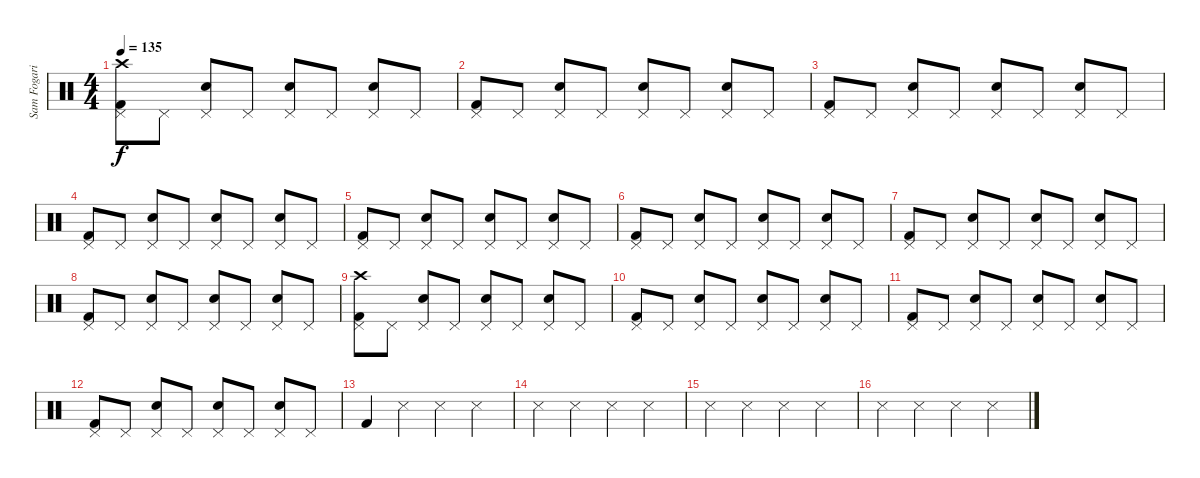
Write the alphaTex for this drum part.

\track ("Sam Fogarino" "Sam Fogari") {instrument percussion}
\staff {score}
\articulation defaults
\ts (4 4)
\tempo 135
\clef neutral
\ks c
("Crash high (hit)" "Kick (hit) 2" "Pedal Hi-Hat (hit)").8{dy f} "Pedal Hi-Hat (hit)".8 ("Electric Snare (hit)" "Pedal Hi-Hat (hit)").8 "Pedal Hi-Hat (hit)".8 ("Electric Snare (hit)" "Pedal Hi-Hat (hit)").8 "Pedal Hi-Hat (hit)".8 ("Electric Snare (hit)" "Pedal Hi-Hat (hit)").8 "Pedal Hi-Hat (hit)".8 |
("Kick (hit) 2" "Pedal Hi-Hat (hit)").8 "Pedal Hi-Hat (hit)".8 ("Electric Snare (hit)" "Pedal Hi-Hat (hit)").8 "Pedal Hi-Hat (hit)".8 ("Electric Snare (hit)" "Pedal Hi-Hat (hit)").8 "Pedal Hi-Hat (hit)".8 ("Electric Snare (hit)" "Pedal Hi-Hat (hit)").8 "Pedal Hi-Hat (hit)".8 |
("Kick (hit) 2" "Pedal Hi-Hat (hit)").8 "Pedal Hi-Hat (hit)".8 ("Electric Snare (hit)" "Pedal Hi-Hat (hit)").8 "Pedal Hi-Hat (hit)".8 ("Electric Snare (hit)" "Pedal Hi-Hat (hit)").8 "Pedal Hi-Hat (hit)".8 ("Electric Snare (hit)" "Pedal Hi-Hat (hit)").8 "Pedal Hi-Hat (hit)".8 |
("Kick (hit) 2" "Pedal Hi-Hat (hit)").8 "Pedal Hi-Hat (hit)".8 ("Electric Snare (hit)" "Pedal Hi-Hat (hit)").8 "Pedal Hi-Hat (hit)".8 ("Electric Snare (hit)" "Pedal Hi-Hat (hit)").8 "Pedal Hi-Hat (hit)".8 ("Electric Snare (hit)" "Pedal Hi-Hat (hit)").8 "Pedal Hi-Hat (hit)".8 |
("Kick (hit) 2" "Pedal Hi-Hat (hit)").8 "Pedal Hi-Hat (hit)".8 ("Electric Snare (hit)" "Pedal Hi-Hat (hit)").8 "Pedal Hi-Hat (hit)".8 ("Electric Snare (hit)" "Pedal Hi-Hat (hit)").8 "Pedal Hi-Hat (hit)".8 ("Electric Snare (hit)" "Pedal Hi-Hat (hit)").8 "Pedal Hi-Hat (hit)".8 |
("Kick (hit) 2" "Pedal Hi-Hat (hit)").8 "Pedal Hi-Hat (hit)".8 ("Electric Snare (hit)" "Pedal Hi-Hat (hit)").8 "Pedal Hi-Hat (hit)".8 ("Electric Snare (hit)" "Pedal Hi-Hat (hit)").8 "Pedal Hi-Hat (hit)".8 ("Electric Snare (hit)" "Pedal Hi-Hat (hit)").8 "Pedal Hi-Hat (hit)".8 |
("Kick (hit) 2" "Pedal Hi-Hat (hit)").8 "Pedal Hi-Hat (hit)".8 ("Electric Snare (hit)" "Pedal Hi-Hat (hit)").8 "Pedal Hi-Hat (hit)".8 ("Electric Snare (hit)" "Pedal Hi-Hat (hit)").8 "Pedal Hi-Hat (hit)".8 ("Electric Snare (hit)" "Pedal Hi-Hat (hit)").8 "Pedal Hi-Hat (hit)".8 |
("Kick (hit) 2" "Pedal Hi-Hat (hit)").8 "Pedal Hi-Hat (hit)".8 ("Electric Snare (hit)" "Pedal Hi-Hat (hit)").8 "Pedal Hi-Hat (hit)".8 ("Electric Snare (hit)" "Pedal Hi-Hat (hit)").8 "Pedal Hi-Hat (hit)".8 ("Electric Snare (hit)" "Pedal Hi-Hat (hit)").8 "Pedal Hi-Hat (hit)".8 |
("Crash high (hit)" "Kick (hit) 2" "Pedal Hi-Hat (hit)").8 "Pedal Hi-Hat (hit)".8 ("Electric Snare (hit)" "Pedal Hi-Hat (hit)").8 "Pedal Hi-Hat (hit)".8 ("Electric Snare (hit)" "Pedal Hi-Hat (hit)").8 "Pedal Hi-Hat (hit)".8 ("Electric Snare (hit)" "Pedal Hi-Hat (hit)").8 "Pedal Hi-Hat (hit)".8 |
("Kick (hit) 2" "Pedal Hi-Hat (hit)").8 "Pedal Hi-Hat (hit)".8 ("Electric Snare (hit)" "Pedal Hi-Hat (hit)").8 "Pedal Hi-Hat (hit)".8 ("Electric Snare (hit)" "Pedal Hi-Hat (hit)").8 "Pedal Hi-Hat (hit)".8 ("Electric Snare (hit)" "Pedal Hi-Hat (hit)").8 "Pedal Hi-Hat (hit)".8 |
("Kick (hit) 2" "Pedal Hi-Hat (hit)").8 "Pedal Hi-Hat (hit)".8 ("Electric Snare (hit)" "Pedal Hi-Hat (hit)").8 "Pedal Hi-Hat (hit)".8 ("Electric Snare (hit)" "Pedal Hi-Hat (hit)").8 "Pedal Hi-Hat (hit)".8 ("Electric Snare (hit)" "Pedal Hi-Hat (hit)").8 "Pedal Hi-Hat (hit)".8 |
("Kick (hit) 2" "Pedal Hi-Hat (hit)").8 "Pedal Hi-Hat (hit)".8 ("Electric Snare (hit)" "Pedal Hi-Hat (hit)").8 "Pedal Hi-Hat (hit)".8 ("Electric Snare (hit)" "Pedal Hi-Hat (hit)").8 "Pedal Hi-Hat (hit)".8 ("Electric Snare (hit)" "Pedal Hi-Hat (hit)").8 "Pedal Hi-Hat (hit)".8 |
"Kick (hit) 2".4 "Snare (side stick) 3".4 "Snare (side stick) 3".4 "Snare (side stick) 3".4 |
"Snare (side stick) 3".4 "Snare (side stick) 3".4 "Snare (side stick) 3".4 "Snare (side stick) 3".4 |
"Snare (side stick) 3".4 "Snare (side stick) 3".4 "Snare (side stick) 3".4 "Snare (side stick) 3".4 |
"Snare (side stick) 3".4 "Snare (side stick) 3".4 "Snare (side stick) 3".4 "Snare (side stick) 3".4
